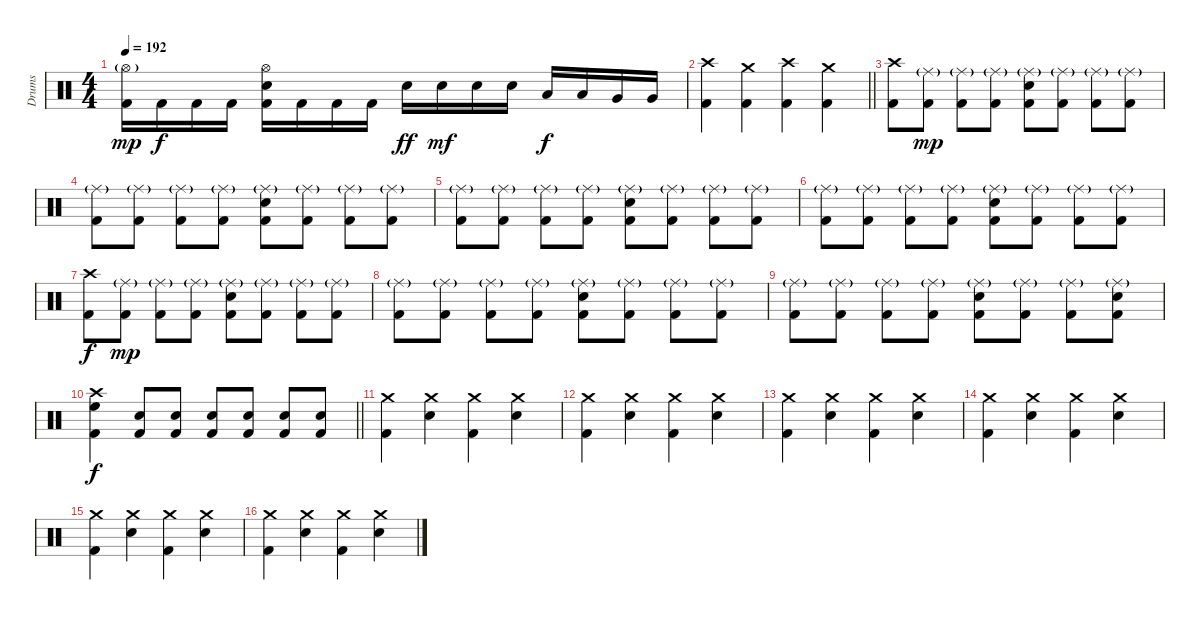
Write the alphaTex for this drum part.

\track ("Drums" "Drums") {instrument percussion}
\staff {score}
\articulation defaults
\ts (4 4)
\tempo 192
\clef neutral
\ks c
("Hi-Hat (open)"{g} "Kick (hit) 2").16{dy mp} "Kick (hit) 2".16{dy f} "Kick (hit) 2".16 "Kick (hit) 2".16 ("Hi-Hat (open)" "Electric Snare (hit)" "Kick (hit) 2").16 "Kick (hit) 2".16 "Kick (hit) 2".16 "Kick (hit) 2".16 "Electric Snare (hit)".16{dy ff} "Electric Snare (hit)".16{dy mf} "Electric Snare (hit)".16 "Electric Snare (hit)".16 "Low Tom (hit)".16{dy f} "Low Tom (hit)".16 "Very Low Tom (hit)".16 "Very Low Tom (hit)".16 |
\barLineRight lightlight
("Crash high (hit)" "Kick (hit) 2").4 ("Crash medium (hit)" "Kick (hit) 2").4 ("Crash high (hit)" "Kick (hit) 2").4 ("Crash medium (hit)" "Kick (hit) 2").4 |
("Crash high (hit)" "Kick (hit) 2").8 ("Ride (middle)"{g} "Kick (hit) 2").8{dy mp} ("Ride (middle)"{g} "Kick (hit) 2").8 ("Ride (middle)"{g} "Kick (hit) 2").8 ("Ride (middle)"{g} "Electric Snare (hit)" "Kick (hit) 2").8 ("Ride (middle)"{g} "Kick (hit) 2").8 ("Ride (middle)"{g} "Kick (hit) 2").8 ("Ride (middle)"{g} "Kick (hit) 2").8 |
("Ride (middle)"{g} "Kick (hit) 2").8 ("Ride (middle)"{g} "Kick (hit) 2").8 ("Ride (middle)"{g} "Kick (hit) 2").8 ("Ride (middle)"{g} "Kick (hit) 2").8 ("Ride (middle)"{g} "Electric Snare (hit)" "Kick (hit) 2").8 ("Ride (middle)"{g} "Kick (hit) 2").8 ("Ride (middle)"{g} "Kick (hit) 2").8 ("Ride (middle)"{g} "Kick (hit) 2").8 |
("Ride (middle)"{g} "Kick (hit) 2").8 ("Ride (middle)"{g} "Kick (hit) 2").8 ("Ride (middle)"{g} "Kick (hit) 2").8 ("Ride (middle)"{g} "Kick (hit) 2").8 ("Ride (middle)"{g} "Electric Snare (hit)" "Kick (hit) 2").8 ("Ride (middle)"{g} "Kick (hit) 2").8 ("Ride (middle)"{g} "Kick (hit) 2").8 ("Ride (middle)"{g} "Kick (hit) 2").8 |
("Ride (middle)"{g} "Kick (hit) 2").8 ("Ride (middle)"{g} "Kick (hit) 2").8 ("Ride (middle)"{g} "Kick (hit) 2").8 ("Ride (middle)"{g} "Kick (hit) 2").8 ("Ride (middle)"{g} "Electric Snare (hit)" "Kick (hit) 2").8 ("Ride (middle)"{g} "Kick (hit) 2").8 ("Ride (middle)"{g} "Kick (hit) 2").8 ("Ride (middle)"{g} "Kick (hit) 2").8 |
("Crash high (hit)" "Kick (hit) 2").8{dy f} ("Ride (middle)"{g} "Kick (hit) 2").8{dy mp} ("Ride (middle)"{g} "Kick (hit) 2").8 ("Ride (middle)"{g} "Kick (hit) 2").8 ("Ride (middle)"{g} "Electric Snare (hit)" "Kick (hit) 2").8 ("Ride (middle)"{g} "Kick (hit) 2").8 ("Ride (middle)"{g} "Kick (hit) 2").8 ("Ride (middle)"{g} "Kick (hit) 2").8 |
("Ride (middle)"{g} "Kick (hit) 2").8 ("Ride (middle)"{g} "Kick (hit) 2").8 ("Ride (middle)"{g} "Kick (hit) 2").8 ("Ride (middle)"{g} "Kick (hit) 2").8 ("Ride (middle)"{g} "Electric Snare (hit)" "Kick (hit) 2").8 ("Ride (middle)"{g} "Kick (hit) 2").8 ("Ride (middle)"{g} "Kick (hit) 2").8 ("Ride (middle)"{g} "Kick (hit) 2").8 |
("Ride (middle)"{g} "Kick (hit) 2").8 ("Ride (middle)"{g} "Kick (hit) 2").8 ("Ride (middle)"{g} "Kick (hit) 2").8 ("Ride (middle)"{g} "Kick (hit) 2").8 ("Ride (middle)"{g} "Electric Snare (hit)" "Kick (hit) 2").8 ("Ride (middle)"{g} "Kick (hit) 2").8 ("Ride (middle)"{g} "Kick (hit) 2").8 ("Ride (middle)"{g} "Electric Snare (hit)" "Kick (hit) 2").8 |
\barLineRight lightlight
("Kick (hit) 2" "Crash high (hit)" "High Floor Tom (hit)").4{dy f} ("Kick (hit) 2" "Electric Snare (hit)").8 ("Kick (hit) 2" "Electric Snare (hit)").8 ("Kick (hit) 2" "Electric Snare (hit)").8 ("Kick (hit) 2" "Electric Snare (hit)").8 ("Kick (hit) 2" "Electric Snare (hit)").8 ("Kick (hit) 2" "Electric Snare (hit)").8 |
("Crash medium (hit)" "Kick (hit) 2").4 ("Crash medium (hit)" "Electric Snare (hit)").4 ("Crash medium (hit)" "Kick (hit) 2").4 ("Crash medium (hit)" "Electric Snare (hit)").4 |
("Crash medium (hit)" "Kick (hit) 2").4 ("Crash medium (hit)" "Electric Snare (hit)").4 ("Crash medium (hit)" "Kick (hit) 2").4 ("Crash medium (hit)" "Electric Snare (hit)").4 |
("Crash medium (hit)" "Kick (hit) 2").4 ("Crash medium (hit)" "Electric Snare (hit)").4 ("Crash medium (hit)" "Kick (hit) 2").4 ("Crash medium (hit)" "Electric Snare (hit)").4 |
("Crash medium (hit)" "Kick (hit) 2").4 ("Crash medium (hit)" "Electric Snare (hit)").4 ("Crash medium (hit)" "Kick (hit) 2").4 ("Crash medium (hit)" "Electric Snare (hit)").4 |
("Crash medium (hit)" "Kick (hit) 2").4 ("Crash medium (hit)" "Electric Snare (hit)").4 ("Crash medium (hit)" "Kick (hit) 2").4 ("Crash medium (hit)" "Electric Snare (hit)").4 |
("Crash medium (hit)" "Kick (hit) 2").4 ("Crash medium (hit)" "Electric Snare (hit)").4 ("Crash medium (hit)" "Kick (hit) 2").4 ("Crash medium (hit)" "Electric Snare (hit)").4
